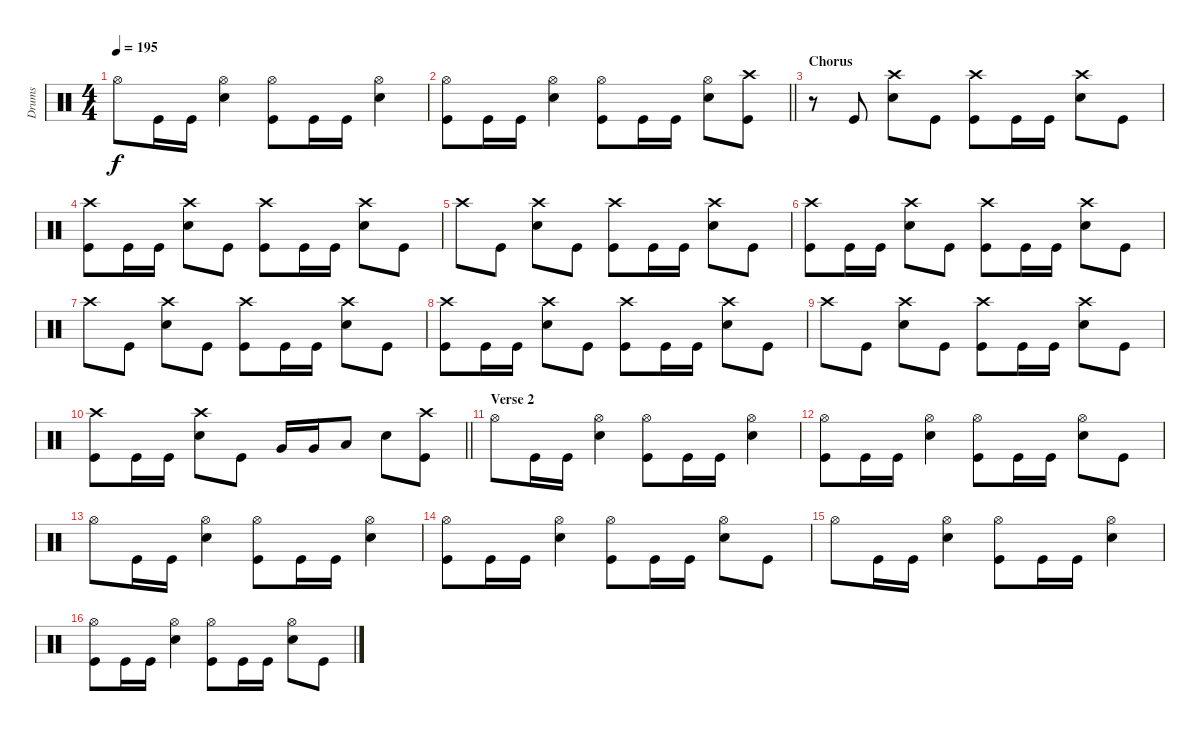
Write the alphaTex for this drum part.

\track ("Drums" "Drums") {instrument percussion}
\staff {score}
\articulation defaults
\ts (4 4)
\tempo 195
\clef neutral
\ks c "Hi-Hat (open)".8{dy f} "Kick (hit)".16 "Kick (hit)".16
("Snare (hit) 2" "Hi-Hat (open)").4 ("Kick (hit)" "Hi-Hat (open)").8 "Kick (hit)".16 "Kick (hit)".16 ("Snare (hit) 2" "Hi-Hat (open)").4 |
\barLineRight lightlight
("Kick (hit)" "Hi-Hat (open)").8 "Kick (hit)".16 "Kick (hit)".16 ("Snare (hit) 2" "Hi-Hat (open)").4 ("Kick (hit)" "Hi-Hat (open)").8 "Kick (hit)".16 "Kick (hit)".16 ("Snare (hit) 2" "Hi-Hat (open)").8 ("Kick (hit)" "Crash high (hit)").8 |
\section ("" "Chorus")
r.8 "Kick (hit)".8 ("Snare (hit) 2" "Crash high (hit)").8 "Kick (hit)".8 ("Kick (hit)" "Crash high (hit)").8 "Kick (hit)".16 "Kick (hit)".16 ("Snare (hit) 2" "Crash high (hit)").8 "Kick (hit)".8 |
("Kick (hit)" "Crash high (hit)").8 "Kick (hit)".16 "Kick (hit)".16 ("Snare (hit) 2" "Crash high (hit)").8 "Kick (hit)".8 ("Kick (hit)" "Crash high (hit)").8 "Kick (hit)".16 "Kick (hit)".16 ("Snare (hit) 2" "Crash high (hit)").8 "Kick (hit)".8 |
"Crash high (hit)".8 "Kick (hit)".8 ("Snare (hit) 2" "Crash high (hit)").8 "Kick (hit)".8 ("Kick (hit)" "Crash high (hit)").8 "Kick (hit)".16 "Kick (hit)".16 ("Snare (hit) 2" "Crash high (hit)").8 "Kick (hit)".8 |
("Kick (hit)" "Crash high (hit)").8 "Kick (hit)".16 "Kick (hit)".16 ("Snare (hit) 2" "Crash high (hit)").8 "Kick (hit)".8 ("Kick (hit)" "Crash high (hit)").8 "Kick (hit)".16 "Kick (hit)".16 ("Snare (hit) 2" "Crash high (hit)").8 "Kick (hit)".8 |
"Crash high (hit)".8 "Kick (hit)".8 ("Snare (hit) 2" "Crash high (hit)").8 "Kick (hit)".8 ("Kick (hit)" "Crash high (hit)").8 "Kick (hit)".16 "Kick (hit)".16 ("Snare (hit) 2" "Crash high (hit)").8 "Kick (hit)".8 |
("Kick (hit)" "Crash high (hit)").8 "Kick (hit)".16 "Kick (hit)".16 ("Snare (hit) 2" "Crash high (hit)").8 "Kick (hit)".8 ("Kick (hit)" "Crash high (hit)").8 "Kick (hit)".16 "Kick (hit)".16 ("Snare (hit) 2" "Crash high (hit)").8 "Kick (hit)".8 |
"Crash high (hit)".8 "Kick (hit)".8 ("Snare (hit) 2" "Crash high (hit)").8 "Kick (hit)".8 ("Kick (hit)" "Crash high (hit)").8 "Kick (hit)".16 "Kick (hit)".16 ("Snare (hit) 2" "Crash high (hit)").8 "Kick (hit)".8 |
\barLineRight lightlight
("Kick (hit)" "Crash high (hit)").8 "Kick (hit)".16 "Kick (hit)".16 ("Snare (hit) 2" "Crash high (hit)").8 "Kick (hit)".8 "Very Low Tom (hit)".16 "Very Low Tom (hit)".16 "Low Floor Tom (hit)".8 "Snare (hit) 2".8 ("Kick (hit)" "Crash high (hit)").8 |
\section ("" "Verse 2")
"Hi-Hat (open)".8 "Kick (hit)".16 "Kick (hit)".16 ("Snare (hit) 2" "Hi-Hat (open)").4 ("Kick (hit)" "Hi-Hat (open)").8 "Kick (hit)".16 "Kick (hit)".16 ("Snare (hit) 2" "Hi-Hat (open)").4 |
("Kick (hit)" "Hi-Hat (open)").8 "Kick (hit)".16 "Kick (hit)".16 ("Snare (hit) 2" "Hi-Hat (open)").4 ("Kick (hit)" "Hi-Hat (open)").8 "Kick (hit)".16 "Kick (hit)".16 ("Snare (hit) 2" "Hi-Hat (open)").8 "Kick (hit)".8 |
"Hi-Hat (open)".8 "Kick (hit)".16 "Kick (hit)".16 ("Snare (hit) 2" "Hi-Hat (open)").4 ("Kick (hit)" "Hi-Hat (open)").8 "Kick (hit)".16 "Kick (hit)".16 ("Snare (hit) 2" "Hi-Hat (open)").4 |
("Kick (hit)" "Hi-Hat (open)").8 "Kick (hit)".16 "Kick (hit)".16 ("Snare (hit) 2" "Hi-Hat (open)").4 ("Kick (hit)" "Hi-Hat (open)").8 "Kick (hit)".16 "Kick (hit)".16 ("Snare (hit) 2" "Hi-Hat (open)").8 "Kick (hit)".8 |
"Hi-Hat (open)".8 "Kick (hit)".16 "Kick (hit)".16 ("Snare (hit) 2" "Hi-Hat (open)").4 ("Kick (hit)" "Hi-Hat (open)").8 "Kick (hit)".16 "Kick (hit)".16 ("Snare (hit) 2" "Hi-Hat (open)").4 |
("Kick (hit)" "Hi-Hat (open)").8 "Kick (hit)".16 "Kick (hit)".16 ("Snare (hit) 2" "Hi-Hat (open)").4 ("Kick (hit)" "Hi-Hat (open)").8 "Kick (hit)".16 "Kick (hit)".16 ("Snare (hit) 2" "Hi-Hat (open)").8 "Kick (hit)".8
